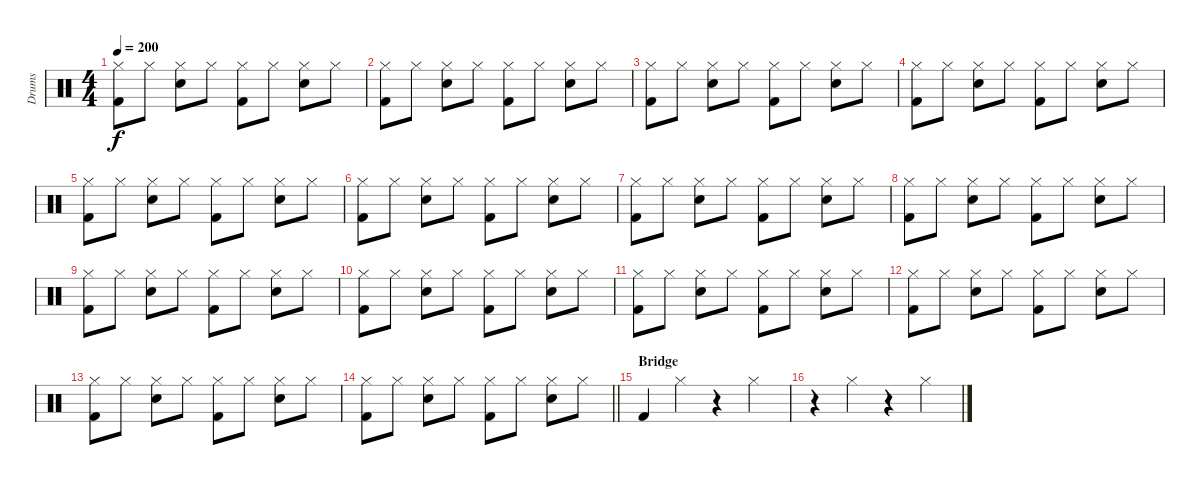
\track ("Drums" "Drums") {instrument percussion}
\staff {score}
\articulation defaults
\ts (4 4)
\tempo 200
\clef neutral
\ks c
("Hi-Hat (closed)" "Kick (hit) 2").8{dy f} "Hi-Hat (closed)".8 ("Snare (hit) 2" "Hi-Hat (closed)").8 "Hi-Hat (closed)".8 ("Hi-Hat (closed)" "Kick (hit) 2").8 "Hi-Hat (closed)".8 ("Snare (hit) 2" "Hi-Hat (closed)").8 "Hi-Hat (closed)".8 |
("Hi-Hat (closed)" "Kick (hit) 2").8 "Hi-Hat (closed)".8 ("Snare (hit) 2" "Hi-Hat (closed)").8 "Hi-Hat (closed)".8 ("Hi-Hat (closed)" "Kick (hit) 2").8 "Hi-Hat (closed)".8 ("Snare (hit) 2" "Hi-Hat (closed)").8 "Hi-Hat (closed)".8 |
("Hi-Hat (closed)" "Kick (hit) 2").8 "Hi-Hat (closed)".8 ("Snare (hit) 2" "Hi-Hat (closed)").8 "Hi-Hat (closed)".8 ("Hi-Hat (closed)" "Kick (hit) 2").8 "Hi-Hat (closed)".8 ("Snare (hit) 2" "Hi-Hat (closed)").8 "Hi-Hat (closed)".8 |
("Hi-Hat (closed)" "Kick (hit) 2").8 "Hi-Hat (closed)".8 ("Snare (hit) 2" "Hi-Hat (closed)").8 "Hi-Hat (closed)".8 ("Hi-Hat (closed)" "Kick (hit) 2").8 "Hi-Hat (closed)".8 ("Snare (hit) 2" "Hi-Hat (closed)").8 "Hi-Hat (closed)".8 |
("Hi-Hat (closed)" "Kick (hit) 2").8 "Hi-Hat (closed)".8 ("Snare (hit) 2" "Hi-Hat (closed)").8 "Hi-Hat (closed)".8 ("Hi-Hat (closed)" "Kick (hit) 2").8 "Hi-Hat (closed)".8 ("Snare (hit) 2" "Hi-Hat (closed)").8 "Hi-Hat (closed)".8 |
("Hi-Hat (closed)" "Kick (hit) 2").8 "Hi-Hat (closed)".8 ("Snare (hit) 2" "Hi-Hat (closed)").8 "Hi-Hat (closed)".8 ("Hi-Hat (closed)" "Kick (hit) 2").8 "Hi-Hat (closed)".8 ("Snare (hit) 2" "Hi-Hat (closed)").8 "Hi-Hat (closed)".8 |
("Hi-Hat (closed)" "Kick (hit) 2").8 "Hi-Hat (closed)".8 ("Snare (hit) 2" "Hi-Hat (closed)").8 "Hi-Hat (closed)".8 ("Hi-Hat (closed)" "Kick (hit) 2").8 "Hi-Hat (closed)".8 ("Snare (hit) 2" "Hi-Hat (closed)").8 "Hi-Hat (closed)".8 |
("Hi-Hat (closed)" "Kick (hit) 2").8 "Hi-Hat (closed)".8 ("Snare (hit) 2" "Hi-Hat (closed)").8 "Hi-Hat (closed)".8 ("Hi-Hat (closed)" "Kick (hit) 2").8 "Hi-Hat (closed)".8 ("Snare (hit) 2" "Hi-Hat (closed)").8 "Hi-Hat (closed)".8 |
("Hi-Hat (closed)" "Kick (hit) 2").8 "Hi-Hat (closed)".8 ("Snare (hit) 2" "Hi-Hat (closed)").8 "Hi-Hat (closed)".8 ("Hi-Hat (closed)" "Kick (hit) 2").8 "Hi-Hat (closed)".8 ("Snare (hit) 2" "Hi-Hat (closed)").8 "Hi-Hat (closed)".8 |
("Hi-Hat (closed)" "Kick (hit) 2").8 "Hi-Hat (closed)".8 ("Snare (hit) 2" "Hi-Hat (closed)").8 "Hi-Hat (closed)".8 ("Hi-Hat (closed)" "Kick (hit) 2").8 "Hi-Hat (closed)".8 ("Snare (hit) 2" "Hi-Hat (closed)").8 "Hi-Hat (closed)".8 |
("Hi-Hat (closed)" "Kick (hit) 2").8 "Hi-Hat (closed)".8 ("Snare (hit) 2" "Hi-Hat (closed)").8 "Hi-Hat (closed)".8 ("Hi-Hat (closed)" "Kick (hit) 2").8 "Hi-Hat (closed)".8 ("Snare (hit) 2" "Hi-Hat (closed)").8 "Hi-Hat (closed)".8 |
("Hi-Hat (closed)" "Kick (hit) 2").8 "Hi-Hat (closed)".8 ("Snare (hit) 2" "Hi-Hat (closed)").8 "Hi-Hat (closed)".8 ("Hi-Hat (closed)" "Kick (hit) 2").8 "Hi-Hat (closed)".8 ("Snare (hit) 2" "Hi-Hat (closed)").8 "Hi-Hat (closed)".8 |
("Hi-Hat (closed)" "Kick (hit) 2").8 "Hi-Hat (closed)".8 ("Snare (hit) 2" "Hi-Hat (closed)").8 "Hi-Hat (closed)".8 ("Hi-Hat (closed)" "Kick (hit) 2").8 "Hi-Hat (closed)".8 ("Snare (hit) 2" "Hi-Hat (closed)").8 "Hi-Hat (closed)".8 |
\barLineRight lightlight
("Hi-Hat (closed)" "Kick (hit) 2").8 "Hi-Hat (closed)".8 ("Snare (hit) 2" "Hi-Hat (closed)").8 "Hi-Hat (closed)".8 ("Hi-Hat (closed)" "Kick (hit) 2").8 "Hi-Hat (closed)".8 ("Snare (hit) 2" "Hi-Hat (closed)").8 "Hi-Hat (closed)".8 |
\section ("" "Bridge")
"Kick (hit) 2".4 "Hi-Hat (closed)".4 r.4 "Hi-Hat (closed)".4 |
r.4 "Hi-Hat (closed)".4 r.4 "Hi-Hat (closed)".4
